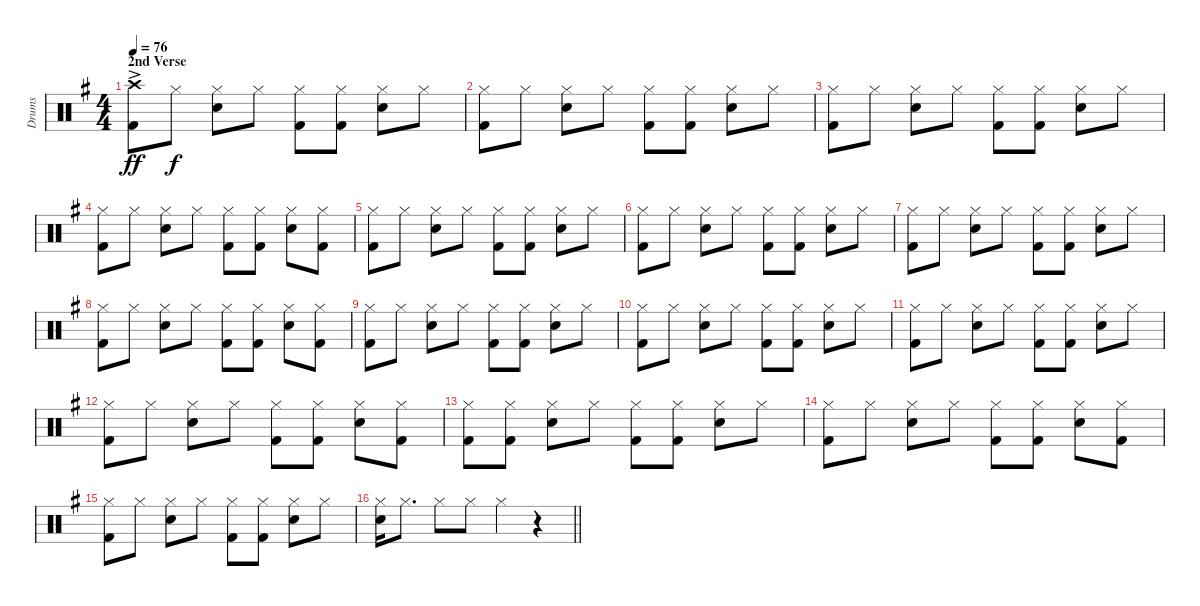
\track ("Drums" "Drums") {instrument percussion}
\staff {score}
\articulation defaults
\ts (4 4)
\section ("" "2nd Verse")
\tempo 76
\clef neutral
\ks eminor
("Crash high (hit)"{ac} "Kick (hit) 2").8{dy ff} "Hi-Hat (closed)".8{dy f} ("Hi-Hat (closed)" "Snare (hit) 2").8 "Hi-Hat (closed)".8 ("Hi-Hat (closed)" "Kick (hit) 2").8 ("Hi-Hat (closed)" "Kick (hit) 2").8 ("Hi-Hat (closed)" "Snare (hit) 2").8 "Hi-Hat (closed)".8 |
("Hi-Hat (closed)" "Kick (hit) 2").8 "Hi-Hat (closed)".8 ("Hi-Hat (closed)" "Snare (hit) 2").8 "Hi-Hat (closed)".8 ("Hi-Hat (closed)" "Kick (hit) 2").8 ("Hi-Hat (closed)" "Kick (hit) 2").8 ("Hi-Hat (closed)" "Snare (hit) 2").8 "Hi-Hat (closed)".8 |
("Hi-Hat (closed)" "Kick (hit) 2").8 "Hi-Hat (closed)".8 ("Hi-Hat (closed)" "Snare (hit) 2").8 "Hi-Hat (closed)".8 ("Hi-Hat (closed)" "Kick (hit) 2").8 ("Hi-Hat (closed)" "Kick (hit) 2").8 ("Hi-Hat (closed)" "Snare (hit) 2").8 "Hi-Hat (closed)".8 |
("Hi-Hat (closed)" "Kick (hit) 2").8 "Hi-Hat (closed)".8 ("Hi-Hat (closed)" "Snare (hit) 2").8 "Hi-Hat (closed)".8 ("Hi-Hat (closed)" "Kick (hit) 2").8 ("Hi-Hat (closed)" "Kick (hit) 2").8 ("Hi-Hat (closed)" "Snare (hit) 2").8 ("Hi-Hat (closed)" "Kick (hit) 2").8 |
("Hi-Hat (closed)" "Kick (hit) 2").8 "Hi-Hat (closed)".8 ("Hi-Hat (closed)" "Snare (hit) 2").8 "Hi-Hat (closed)".8 ("Hi-Hat (closed)" "Kick (hit) 2").8 ("Hi-Hat (closed)" "Kick (hit) 2").8 ("Hi-Hat (closed)" "Snare (hit) 2").8 "Hi-Hat (closed)".8 |
("Hi-Hat (closed)" "Kick (hit) 2").8 "Hi-Hat (closed)".8 ("Hi-Hat (closed)" "Snare (hit) 2").8 "Hi-Hat (closed)".8 ("Hi-Hat (closed)" "Kick (hit) 2").8 ("Hi-Hat (closed)" "Kick (hit) 2").8 ("Hi-Hat (closed)" "Snare (hit) 2").8 "Hi-Hat (closed)".8 |
("Hi-Hat (closed)" "Kick (hit) 2").8 "Hi-Hat (closed)".8 ("Hi-Hat (closed)" "Snare (hit) 2").8 "Hi-Hat (closed)".8 ("Hi-Hat (closed)" "Kick (hit) 2").8 ("Hi-Hat (closed)" "Kick (hit) 2").8 ("Hi-Hat (closed)" "Snare (hit) 2").8 "Hi-Hat (closed)".8 |
("Hi-Hat (closed)" "Kick (hit) 2").8 "Hi-Hat (closed)".8 ("Hi-Hat (closed)" "Snare (hit) 2").8 "Hi-Hat (closed)".8 ("Hi-Hat (closed)" "Kick (hit) 2").8 ("Hi-Hat (closed)" "Kick (hit) 2").8 ("Hi-Hat (closed)" "Snare (hit) 2").8 ("Hi-Hat (closed)" "Kick (hit) 2").8 |
("Hi-Hat (closed)" "Kick (hit) 2").8 "Hi-Hat (closed)".8 ("Hi-Hat (closed)" "Snare (hit) 2").8 "Hi-Hat (closed)".8 ("Hi-Hat (closed)" "Kick (hit) 2").8 ("Hi-Hat (closed)" "Kick (hit) 2").8 ("Hi-Hat (closed)" "Snare (hit) 2").8 "Hi-Hat (closed)".8 |
("Hi-Hat (closed)" "Kick (hit) 2").8 "Hi-Hat (closed)".8 ("Hi-Hat (closed)" "Snare (hit) 2").8 "Hi-Hat (closed)".8 ("Hi-Hat (closed)" "Kick (hit) 2").8 ("Hi-Hat (closed)" "Kick (hit) 2").8 ("Hi-Hat (closed)" "Snare (hit) 2").8 "Hi-Hat (closed)".8 |
("Hi-Hat (closed)" "Kick (hit) 2").8 "Hi-Hat (closed)".8 ("Hi-Hat (closed)" "Snare (hit) 2").8 "Hi-Hat (closed)".8 ("Hi-Hat (closed)" "Kick (hit) 2").8 ("Hi-Hat (closed)" "Kick (hit) 2").8 ("Hi-Hat (closed)" "Snare (hit) 2").8 "Hi-Hat (closed)".8 |
("Hi-Hat (closed)" "Kick (hit) 2").8 "Hi-Hat (closed)".8 ("Hi-Hat (closed)" "Snare (hit) 2").8 "Hi-Hat (closed)".8 ("Hi-Hat (closed)" "Kick (hit) 2").8 ("Hi-Hat (closed)" "Kick (hit) 2").8 ("Hi-Hat (closed)" "Snare (hit) 2").8 ("Hi-Hat (closed)" "Kick (hit) 2").8 |
("Hi-Hat (closed)" "Kick (hit) 2").8 ("Hi-Hat (closed)" "Kick (hit) 2").8 ("Hi-Hat (closed)" "Snare (hit) 2").8 "Hi-Hat (closed)".8 ("Hi-Hat (closed)" "Kick (hit) 2").8 ("Hi-Hat (closed)" "Kick (hit) 2").8 ("Hi-Hat (closed)" "Snare (hit) 2").8 "Hi-Hat (closed)".8 |
("Hi-Hat (closed)" "Kick (hit) 2").8 "Hi-Hat (closed)".8 ("Hi-Hat (closed)" "Snare (hit) 2").8 "Hi-Hat (closed)".8 ("Hi-Hat (closed)" "Kick (hit) 2").8 ("Hi-Hat (closed)" "Kick (hit) 2").8 ("Hi-Hat (closed)" "Snare (hit) 2").8 ("Hi-Hat (closed)" "Kick (hit) 2").8 |
("Hi-Hat (closed)" "Kick (hit) 2").8 "Hi-Hat (closed)".8 ("Hi-Hat (closed)" "Snare (hit) 2").8 "Hi-Hat (closed)".8 ("Hi-Hat (closed)" "Kick (hit) 2").8 ("Hi-Hat (closed)" "Kick (hit) 2").8 ("Hi-Hat (closed)" "Snare (hit) 2").8 "Hi-Hat (closed)".8 |
\barLineRight lightlight
("Hi-Hat (closed)" "Snare (hit) 2").16 "Hi-Hat (closed)".8{d} "Hi-Hat (closed)".8 "Hi-Hat (closed)".8 "Hi-Hat (closed)".4 r.4
